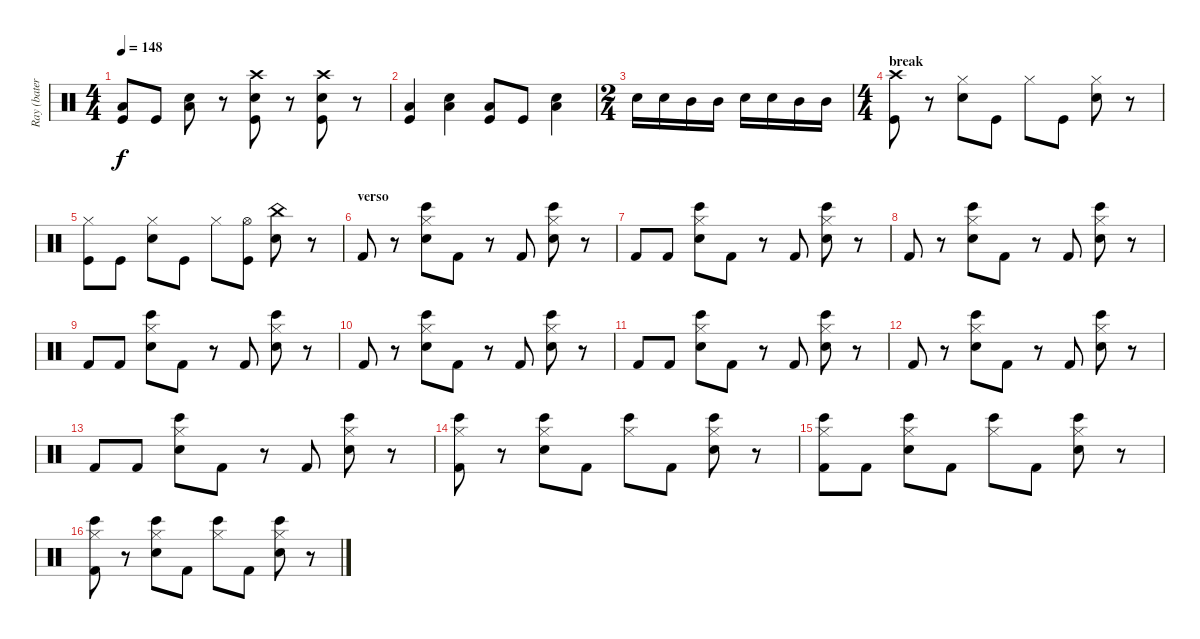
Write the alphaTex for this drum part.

\track ("Ray (batería)" "Ray (bater") {instrument percussion}
\staff {score}
\articulation defaults
\ts (4 4)
\tempo 148
\clef neutral
\ks c
("Low Tom (hit)" "Kick (hit)").8{dy f} "Kick (hit)".8 ("Snare (hit) 2" "Low Tom (hit)").8 r.8 ("Crash high (hit)" "Snare (hit) 2" "Kick (hit)").8 r.8 ("Crash high (hit)" "Snare (hit) 2" "Kick (hit)").8 r.8 |
("Low Tom (hit)" "Kick (hit)").4 ("Snare (hit) 2" "Low Tom (hit)").4 ("Low Tom (hit)" "Kick (hit)").8 "Kick (hit)".8 ("Snare (hit) 2" "Low Tom (hit)").4 |
\ts (2 4)
"Snare (hit) 2".16 "Snare (hit) 2".16 "Mid Tom (hit)".16 "Mid Tom (hit)".16 "Snare (hit) 2".16 "Snare (hit) 2".16 "Mid Tom (hit)".16 "Mid Tom (hit)".16 |
\ts (4 4)
\section ("" "break")
("Crash high (hit)" "Kick (hit)").8 r.8 ("Hi-Hat (closed)" "Snare (hit) 2").8 "Kick (hit)".8 "Hi-Hat (closed)".8 "Kick (hit)".8 ("Hi-Hat (closed)" "Snare (hit) 2").8 r.8 |
("Hi-Hat (closed)" "Kick (hit)").8 "Kick (hit)".8 ("Hi-Hat (closed)" "Snare (hit) 2").8 "Kick (hit)".8 "Hi-Hat (closed)".8 ("Hi-Hat (open)" "Kick (hit)").8 ("China (hit)" "Snare (hit) 2").8 r.8 |
\section ("" "verso")
"Kick (hit) 2".8{volume 13} r.8 ("Hi-Hat (closed)" "Bongo High (hit)" "Hand Clap (hit)").8 "Kick (hit) 2".8 r.8 "Kick (hit) 2".8 ("Hi-Hat (closed)" "Bongo High (hit)" "Hand Clap (hit)").8 r.8 |
"Kick (hit) 2".8 "Kick (hit) 2".8 ("Hi-Hat (closed)" "Bongo High (hit)" "Hand Clap (hit)").8 "Kick (hit) 2".8 r.8 "Kick (hit) 2".8 ("Hi-Hat (closed)" "Bongo High (hit)" "Hand Clap (hit)").8 r.8 |
"Kick (hit) 2".8 r.8 ("Hi-Hat (closed)" "Bongo High (hit)" "Hand Clap (hit)").8 "Kick (hit) 2".8 r.8 "Kick (hit) 2".8 ("Hi-Hat (closed)" "Bongo High (hit)" "Hand Clap (hit)").8 r.8 |
"Kick (hit) 2".8 "Kick (hit) 2".8 ("Hi-Hat (closed)" "Bongo High (hit)" "Hand Clap (hit)").8 "Kick (hit) 2".8 r.8 "Kick (hit) 2".8 ("Hi-Hat (closed)" "Bongo High (hit)" "Hand Clap (hit)").8 r.8 |
"Kick (hit) 2".8 r.8 ("Hi-Hat (closed)" "Bongo High (hit)" "Hand Clap (hit)").8 "Kick (hit) 2".8 r.8 "Kick (hit) 2".8 ("Hi-Hat (closed)" "Bongo High (hit)" "Hand Clap (hit)").8 r.8 |
"Kick (hit) 2".8 "Kick (hit) 2".8 ("Hi-Hat (closed)" "Bongo High (hit)" "Hand Clap (hit)").8 "Kick (hit) 2".8 r.8 "Kick (hit) 2".8 ("Hi-Hat (closed)" "Bongo High (hit)" "Hand Clap (hit)").8 r.8 |
"Kick (hit) 2".8 r.8 ("Hi-Hat (closed)" "Bongo High (hit)" "Hand Clap (hit)").8 "Kick (hit) 2".8 r.8 "Kick (hit) 2".8 ("Hi-Hat (closed)" "Bongo High (hit)" "Hand Clap (hit)").8 r.8 |
"Kick (hit) 2".8 "Kick (hit) 2".8 ("Hi-Hat (closed)" "Bongo High (hit)" "Hand Clap (hit)").8 "Kick (hit) 2".8 r.8 "Kick (hit) 2".8 ("Hi-Hat (closed)" "Bongo High (hit)" "Hand Clap (hit)").8 r.8 |
("Hi-Hat (closed)" "Bongo High (hit)" "Kick (hit) 2").8 r.8 ("Hi-Hat (closed)" "Bongo High (hit)" "Hand Clap (hit)").8 "Kick (hit) 2".8 ("Hi-Hat (closed)" "Bongo High (hit)").8 "Kick (hit) 2".8 ("Hi-Hat (closed)" "Bongo High (hit)" "Hand Clap (hit)").8 r.8 |
("Hi-Hat (closed)" "Bongo High (hit)" "Kick (hit) 2").8 "Kick (hit) 2".8 ("Hi-Hat (closed)" "Bongo High (hit)" "Hand Clap (hit)").8 "Kick (hit) 2".8 ("Hi-Hat (closed)" "Bongo High (hit)").8 "Kick (hit) 2".8 ("Hi-Hat (closed)" "Bongo High (hit)" "Hand Clap (hit)").8 r.8 |
("Hi-Hat (closed)" "Bongo High (hit)" "Kick (hit) 2").8 r.8 ("Hi-Hat (closed)" "Bongo High (hit)" "Hand Clap (hit)").8 "Kick (hit) 2".8 ("Hi-Hat (closed)" "Bongo High (hit)").8 "Kick (hit) 2".8 ("Hi-Hat (closed)" "Bongo High (hit)" "Hand Clap (hit)").8 r.8
